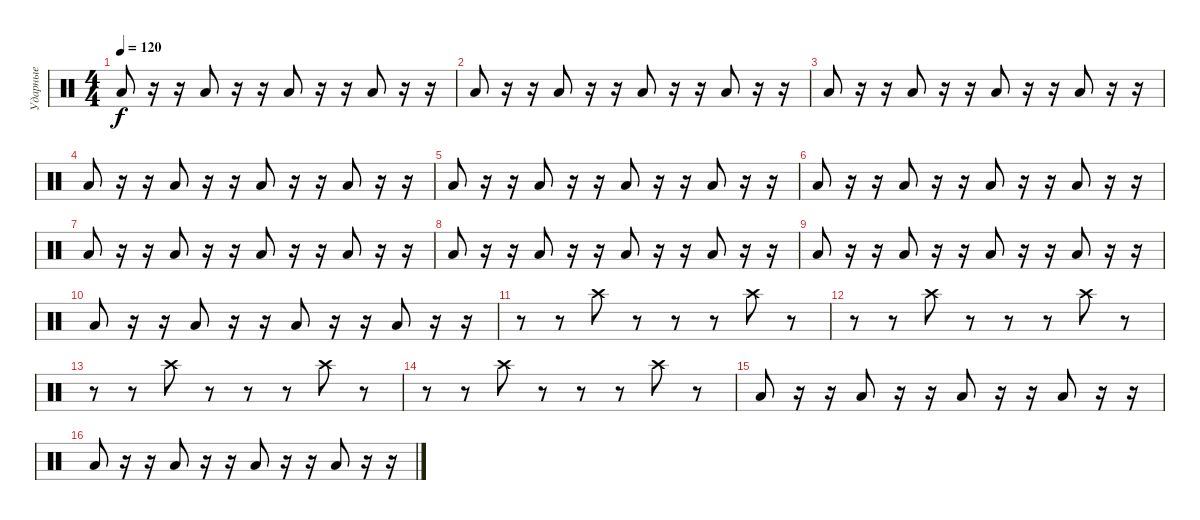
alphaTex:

\track ("Ударные" "Ударные") {instrument percussion}
\staff {score}
\articulation defaults
\ts (4 4)
\tempo 120
\clef neutral
\ks c "Low Floor Tom (hit)".8{dy f}
r.16 r.16 "Low Floor Tom (hit)".8 r.16 r.16 "Low Floor Tom (hit)".8 r.16 r.16 "Low Floor Tom (hit)".8 r.16 r.16 |
"Low Floor Tom (hit)".8 r.16 r.16 "Low Floor Tom (hit)".8 r.16 r.16 "Low Floor Tom (hit)".8 r.16 r.16 "Low Floor Tom (hit)".8 r.16 r.16 |
"Low Floor Tom (hit)".8 r.16 r.16 "Low Floor Tom (hit)".8 r.16 r.16 "Low Floor Tom (hit)".8 r.16 r.16 "Low Floor Tom (hit)".8 r.16 r.16 |
"Low Floor Tom (hit)".8 r.16 r.16 "Low Floor Tom (hit)".8 r.16 r.16 "Low Floor Tom (hit)".8 r.16 r.16 "Low Floor Tom (hit)".8 r.16 r.16 |
"Low Floor Tom (hit)".8 r.16 r.16 "Low Floor Tom (hit)".8 r.16 r.16 "Low Floor Tom (hit)".8 r.16 r.16 "Low Floor Tom (hit)".8 r.16 r.16 |
"Low Floor Tom (hit)".8 r.16 r.16 "Low Floor Tom (hit)".8 r.16 r.16 "Low Floor Tom (hit)".8 r.16 r.16 "Low Floor Tom (hit)".8 r.16 r.16 |
"Low Floor Tom (hit)".8 r.16 r.16 "Low Floor Tom (hit)".8 r.16 r.16 "Low Floor Tom (hit)".8 r.16 r.16 "Low Floor Tom (hit)".8 r.16 r.16 |
"Low Floor Tom (hit)".8 r.16 r.16 "Low Floor Tom (hit)".8 r.16 r.16 "Low Floor Tom (hit)".8 r.16 r.16 "Low Floor Tom (hit)".8 r.16 r.16 |
"Low Floor Tom (hit)".8 r.16 r.16 "Low Floor Tom (hit)".8 r.16 r.16 "Low Floor Tom (hit)".8 r.16 r.16 "Low Floor Tom (hit)".8 r.16 r.16 |
"Low Floor Tom (hit)".8 r.16 r.16 "Low Floor Tom (hit)".8 r.16 r.16 "Low Floor Tom (hit)".8 r.16 r.16 "Low Floor Tom (hit)".8 r.16 r.16 |
r.8 r.8 "Crash high (hit)".8 r.8 r.8 r.8 "Crash high (hit)".8 r.8 |
r.8 r.8 "Crash high (hit)".8 r.8 r.8 r.8 "Crash high (hit)".8 r.8 |
r.8 r.8 "Crash high (hit)".8 r.8 r.8 r.8 "Crash high (hit)".8 r.8 |
r.8 r.8 "Crash high (hit)".8 r.8 r.8 r.8 "Crash high (hit)".8 r.8 |
"Low Floor Tom (hit)".8 r.16 r.16 "Low Floor Tom (hit)".8 r.16 r.16 "Low Floor Tom (hit)".8 r.16 r.16 "Low Floor Tom (hit)".8 r.16 r.16 |
"Low Floor Tom (hit)".8 r.16 r.16 "Low Floor Tom (hit)".8 r.16 r.16 "Low Floor Tom (hit)".8 r.16 r.16 "Low Floor Tom (hit)".8 r.16 r.16
